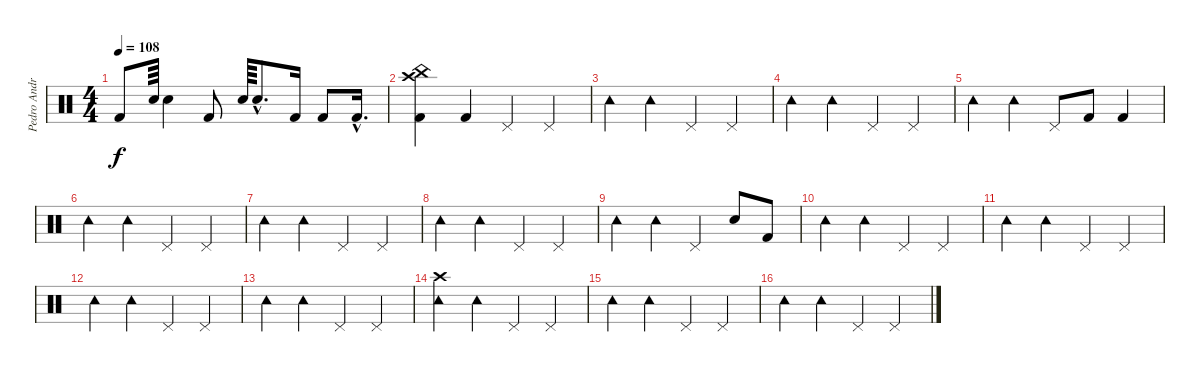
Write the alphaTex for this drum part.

\track ("Pedro Andreu" "Pedro Andr") {instrument percussion}
\staff {score}
\articulation defaults
\ts (4 4)
\tempo 108
\clef neutral
\ks c "Kick (hit) 2".8{dy f} "Snare (hit) 2".64 "Snare (hit) 2".4 "Kick (hit) 2".8 "Snare (hit) 2".64 "Snare (hit) 2"{hac}.8{d} "Kick (hit) 2".16 "Kick (hit) 2".8 "Kick (hit) 2"{hac}.16{d}
|
("Crash high (hit)" "China (hit)" "Kick (hit) 2").4 "Kick (hit) 2".4 "Pedal Hi-Hat (hit)".4 "Pedal Hi-Hat (hit)".4 |
"Tambourine (hit)".4 "Tambourine (hit)".4 "Pedal Hi-Hat (hit)".4 "Pedal Hi-Hat (hit)".4 |
"Tambourine (hit)".4 "Tambourine (hit)".4 "Pedal Hi-Hat (hit)".4 "Pedal Hi-Hat (hit)".4 |
"Tambourine (hit)".4 "Tambourine (hit)".4 "Pedal Hi-Hat (hit)".8 "Kick (hit) 2".8 "Kick (hit) 2".4 |
"Tambourine (hit)".4 "Tambourine (hit)".4 "Pedal Hi-Hat (hit)".4 "Pedal Hi-Hat (hit)".4 |
"Tambourine (hit)".4 "Tambourine (hit)".4 "Pedal Hi-Hat (hit)".4 "Pedal Hi-Hat (hit)".4 |
"Tambourine (hit)".4 "Tambourine (hit)".4 "Pedal Hi-Hat (hit)".4 "Pedal Hi-Hat (hit)".4 |
"Tambourine (hit)".4 "Tambourine (hit)".4 "Pedal Hi-Hat (hit)".4 "Snare (hit) 2".8 "Kick (hit) 2".8 |
"Tambourine (hit)".4 "Tambourine (hit)".4 "Pedal Hi-Hat (hit)".4 "Pedal Hi-Hat (hit)".4 |
"Tambourine (hit)".4 "Tambourine (hit)".4 "Pedal Hi-Hat (hit)".4 "Pedal Hi-Hat (hit)".4 |
"Tambourine (hit)".4 "Tambourine (hit)".4 "Pedal Hi-Hat (hit)".4 "Pedal Hi-Hat (hit)".4 |
"Tambourine (hit)".4 "Tambourine (hit)".4 "Pedal Hi-Hat (hit)".4 "Pedal Hi-Hat (hit)".4 |
("Tambourine (hit)" "Crash high (hit)").4 "Tambourine (hit)".4 "Pedal Hi-Hat (hit)".4 "Pedal Hi-Hat (hit)".4 |
"Tambourine (hit)".4 "Tambourine (hit)".4 "Pedal Hi-Hat (hit)".4 "Pedal Hi-Hat (hit)".4 |
"Tambourine (hit)".4 "Tambourine (hit)".4 "Pedal Hi-Hat (hit)".4 "Pedal Hi-Hat (hit)".4
